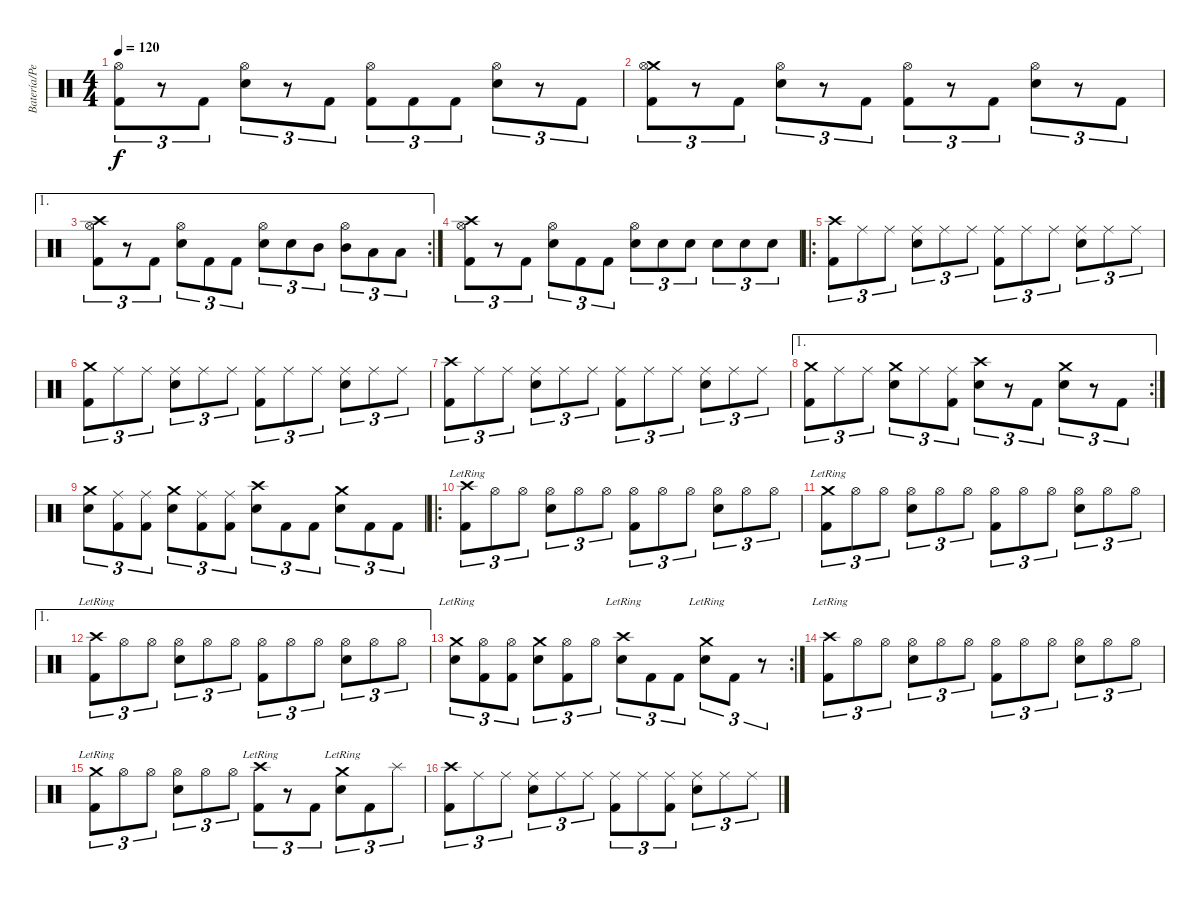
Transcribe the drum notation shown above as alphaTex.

\track ("Batería/Perc." "Batería/Pe") {instrument percussion}
\staff {score}
\articulation defaults
\ts (4 4)
\tempo 120
\clef neutral
\ks c
("Hi-Hat (open)" "Kick (hit) 2").8{tu (3 2) dy f volume 14} r.8{tu (3 2)} "Kick (hit) 2".8{tu (3 2)} ("Hi-Hat (open)" "Snare (hit) 2").8{tu (3 2)} r.8{tu (3 2)} "Kick (hit) 2".8{tu (3 2)} ("Hi-Hat (open)" "Kick (hit) 2").8{tu (3 2)} "Kick (hit) 2".8{tu (3 2)} "Kick (hit) 2".8{tu (3 2)} ("Hi-Hat (open)" "Snare (hit) 2").8{tu (3 2)} r.8{tu (3 2)} "Kick (hit) 2".8{tu (3 2)} |
("Crash medium (hit)" "Hi-Hat (open)" "Kick (hit) 2").8{tu (3 2) volume 14} r.8{tu (3 2)} "Kick (hit) 2".8{tu (3 2)} ("Hi-Hat (open)" "Snare (hit) 2").8{tu (3 2)} r.8{tu (3 2)} "Kick (hit) 2".8{tu (3 2)} ("Hi-Hat (open)" "Kick (hit) 2").8{tu (3 2)} r.8{tu (3 2)} "Kick (hit) 2".8{tu (3 2)} ("Hi-Hat (open)" "Snare (hit) 2").8{tu (3 2)} r.8{tu (3 2)} "Kick (hit) 2".8{tu (3 2)} |
\ae 1
\rc 2
("Crash high (hit)" "Hi-Hat (open)" "Kick (hit) 2").8{tu (3 2) volume 14} r.8{tu (3 2)} "Kick (hit) 2".8{tu (3 2)} ("Hi-Hat (open)" "Snare (hit) 2").8{tu (3 2)} "Kick (hit) 2".8{tu (3 2)} "Kick (hit) 2".8{tu (3 2)} ("Hi-Hat (open)" "Snare (hit) 2").8{tu (3 2)} "Snare (hit) 2".8{tu (3 2)} "Mid Tom (hit)".8{tu (3 2)} ("Hi-Hat (open)" "Mid Tom (hit)").8{tu (3 2)} "Low Tom (hit)".8{tu (3 2)} "Low Tom (hit)".8{tu (3 2)} |
("Crash high (hit)" "Hi-Hat (open)" "Kick (hit) 2").8{tu (3 2) volume 14} r.8{tu (3 2)} "Kick (hit) 2".8{tu (3 2)} ("Hi-Hat (open)" "Snare (hit) 2").8{tu (3 2)} "Kick (hit) 2".8{tu (3 2)} "Kick (hit) 2".8{tu (3 2)} ("Hi-Hat (open)" "Snare (hit) 2").8{tu (3 2)} "Snare (hit) 2".8{tu (3 2)} "Snare (hit) 2".8{tu (3 2)} "Snare (hit) 2".8{tu (3 2)} "Snare (hit) 2".8{tu (3 2)} "Snare (hit) 2".8{tu (3 2)} |
\ro
("Crash high (hit)" "Kick (hit) 2").8{tu (3 2) volume 14} "Ride (middle)".8{tu (3 2)} "Ride (middle)".8{tu (3 2)} ("Ride (middle)" "Snare (hit) 2").8{tu (3 2)} "Ride (middle)".8{tu (3 2)} "Ride (middle)".8{tu (3 2)} ("Ride (middle)" "Kick (hit) 2").8{tu (3 2)} "Ride (middle)".8{tu (3 2)} "Ride (middle)".8{tu (3 2)} ("Ride (middle)" "Snare (hit) 2").8{tu (3 2)} "Ride (middle)".8{tu (3 2)} "Ride (middle)".8{tu (3 2)} |
("Crash medium (hit)" "Kick (hit) 2").8{tu (3 2) volume 14} "Ride (middle)".8{tu (3 2)} "Ride (middle)".8{tu (3 2)} ("Ride (middle)" "Snare (hit) 2").8{tu (3 2)} "Ride (middle)".8{tu (3 2)} "Ride (middle)".8{tu (3 2)} ("Ride (middle)" "Kick (hit) 2").8{tu (3 2)} "Ride (middle)".8{tu (3 2)} "Ride (middle)".8{tu (3 2)} ("Ride (middle)" "Snare (hit) 2").8{tu (3 2)} "Ride (middle)".8{tu (3 2)} "Ride (middle)".8{tu (3 2)} |
("Crash high (hit)" "Kick (hit) 2").8{tu (3 2) volume 14} "Ride (middle)".8{tu (3 2)} "Ride (middle)".8{tu (3 2)} ("Ride (middle)" "Snare (hit) 2").8{tu (3 2)} "Ride (middle)".8{tu (3 2)} "Ride (middle)".8{tu (3 2)} ("Ride (middle)" "Kick (hit) 2").8{tu (3 2)} "Ride (middle)".8{tu (3 2)} "Ride (middle)".8{tu (3 2)} ("Ride (middle)" "Snare (hit) 2").8{tu (3 2)} "Ride (middle)".8{tu (3 2)} "Ride (middle)".8{tu (3 2)} |
\ae 1
\rc 2
("Crash medium (hit)" "Kick (hit) 2").8{tu (3 2) volume 14} "Ride (middle)".8{tu (3 2)} "Ride (middle)".8{tu (3 2)} ("Crash medium (hit)" "Snare (hit) 2").8{tu (3 2)} "Ride (middle)".8{tu (3 2)} ("Ride (middle)" "Kick (hit) 2").8{tu (3 2)} ("Crash high (hit)" "Snare (hit) 2").8{tu (3 2)} r.8{tu (3 2)} "Kick (hit) 2".8{tu (3 2)} ("Crash medium (hit)" "Snare (hit) 2").8{tu (3 2)} r.8{tu (3 2)} "Kick (hit) 2".8{tu (3 2)} |
("Crash medium (hit)" "Snare (hit) 2").8{tu (3 2) volume 14} ("Ride (middle)" "Kick (hit) 2").8{tu (3 2)} ("Ride (middle)" "Kick (hit) 2").8{tu (3 2)} ("Crash medium (hit)" "Snare (hit) 2").8{tu (3 2)} ("Ride (middle)" "Kick (hit) 2").8{tu (3 2)} ("Ride (middle)" "Kick (hit) 2").8{tu (3 2)} ("Crash high (hit)" "Snare (hit) 2").8{tu (3 2)} "Kick (hit) 2".8{tu (3 2)} "Kick (hit) 2".8{tu (3 2)} ("Crash medium (hit)" "Snare (hit) 2").8{tu (3 2)} "Kick (hit) 2".8{tu (3 2)} "Kick (hit) 2".8{tu (3 2)} |
\ro
("Crash high (hit)"{lr} "Kick (hit) 2").8{tu (3 2) volume 14} "Hi-Hat (open)".8{tu (3 2)} "Hi-Hat (open)".8{tu (3 2)} ("Hi-Hat (open)" "Snare (hit) 2").8{tu (3 2)} "Hi-Hat (open)".8{tu (3 2)} "Hi-Hat (open)".8{tu (3 2)} ("Hi-Hat (open)" "Kick (hit) 2").8{tu (3 2)} "Hi-Hat (open)".8{tu (3 2)} "Hi-Hat (open)".8{tu (3 2)} ("Hi-Hat (open)" "Snare (hit) 2").8{tu (3 2)} "Hi-Hat (open)".8{tu (3 2)} "Hi-Hat (open)".8{tu (3 2)} |
("Crash medium (hit)"{lr} "Kick (hit) 2").8{tu (3 2) volume 14} "Hi-Hat (open)".8{tu (3 2)} "Hi-Hat (open)".8{tu (3 2)} ("Hi-Hat (open)" "Snare (hit) 2").8{tu (3 2)} "Hi-Hat (open)".8{tu (3 2)} "Hi-Hat (open)".8{tu (3 2)} ("Hi-Hat (open)" "Kick (hit) 2").8{tu (3 2)} "Hi-Hat (open)".8{tu (3 2)} "Hi-Hat (open)".8{tu (3 2)} ("Hi-Hat (open)" "Snare (hit) 2").8{tu (3 2)} "Hi-Hat (open)".8{tu (3 2)} "Hi-Hat (open)".8{tu (3 2)} |
\ae 1
("Crash high (hit)"{lr} "Kick (hit) 2").8{tu (3 2) volume 14} "Hi-Hat (open)".8{tu (3 2)} "Hi-Hat (open)".8{tu (3 2)} ("Hi-Hat (open)" "Snare (hit) 2").8{tu (3 2)} "Hi-Hat (open)".8{tu (3 2)} "Hi-Hat (open)".8{tu (3 2)} ("Hi-Hat (open)" "Kick (hit) 2").8{tu (3 2)} "Hi-Hat (open)".8{tu (3 2)} "Hi-Hat (open)".8{tu (3 2)} ("Hi-Hat (open)" "Snare (hit) 2").8{tu (3 2)} "Hi-Hat (open)".8{tu (3 2)} "Hi-Hat (open)".8{tu (3 2)} |
\rc 2
("Crash medium (hit)"{lr} "Snare (hit) 2").8{tu (3 2) volume 14} ("Hi-Hat (open)" "Kick (hit) 2").8{tu (3 2)} ("Hi-Hat (open)" "Kick (hit) 2").8{tu (3 2)} ("Crash medium (hit)" "Snare (hit) 2").8{tu (3 2)} ("Hi-Hat (open)" "Kick (hit) 2").8{tu (3 2)} "Hi-Hat (open)".8{tu (3 2)} ("Crash high (hit)"{lr} "Snare (hit) 2").8{tu (3 2)} "Kick (hit) 2".8{tu (3 2)} "Kick (hit) 2".8{tu (3 2)} ("Crash medium (hit)"{lr} "Snare (hit) 2").8{tu (3 2)} "Kick (hit) 2".8{tu (3 2)} r.8{tu (3 2)} |
("Crash high (hit)"{lr} "Kick (hit) 2").8{tu (3 2) volume 14} "Hi-Hat (open)".8{tu (3 2)} "Hi-Hat (open)".8{tu (3 2)} ("Hi-Hat (open)" "Snare (hit) 2").8{tu (3 2)} "Hi-Hat (open)".8{tu (3 2)} "Hi-Hat (open)".8{tu (3 2)} ("Hi-Hat (open)" "Kick (hit) 2").8{tu (3 2)} "Hi-Hat (open)".8{tu (3 2)} "Hi-Hat (open)".8{tu (3 2)} ("Hi-Hat (open)" "Snare (hit) 2").8{tu (3 2)} "Hi-Hat (open)".8{tu (3 2)} "Hi-Hat (open)".8{tu (3 2)} |
("Crash medium (hit)"{lr} "Kick (hit) 2").8{tu (3 2) volume 14} "Hi-Hat (open)".8{tu (3 2)} "Hi-Hat (open)".8{tu (3 2)} ("Hi-Hat (open)" "Snare (hit) 2").8{tu (3 2)} "Hi-Hat (open)".8{tu (3 2)} "Hi-Hat (open)".8{tu (3 2)} ("Crash high (hit)"{lr} "Kick (hit) 2").8{tu (3 2)} r.8{tu (3 2)} "Kick (hit) 2".8{tu (3 2)} ("Crash medium (hit)"{lr} "Snare (hit) 2").8{tu (3 2)} "Kick (hit) 2".8{tu (3 2)} "Splash (hit)".8{tu (3 2)} |
("Crash high (hit)" "Kick (hit) 2").8{tu (3 2) volume 14} "Ride (middle)".8{tu (3 2)} "Ride (middle)".8{tu (3 2)} ("Ride (middle)" "Snare (hit) 2").8{tu (3 2)} "Ride (middle)".8{tu (3 2)} "Ride (middle)".8{tu (3 2)} ("Ride (middle)" "Kick (hit) 2").8{tu (3 2)} "Ride (middle)".8{tu (3 2)} ("Ride (middle)" "Kick (hit) 2").8{tu (3 2)} ("Ride (middle)" "Snare (hit) 2").8{tu (3 2)} "Ride (middle)".8{tu (3 2)} "Ride (middle)".8{tu (3 2)}
